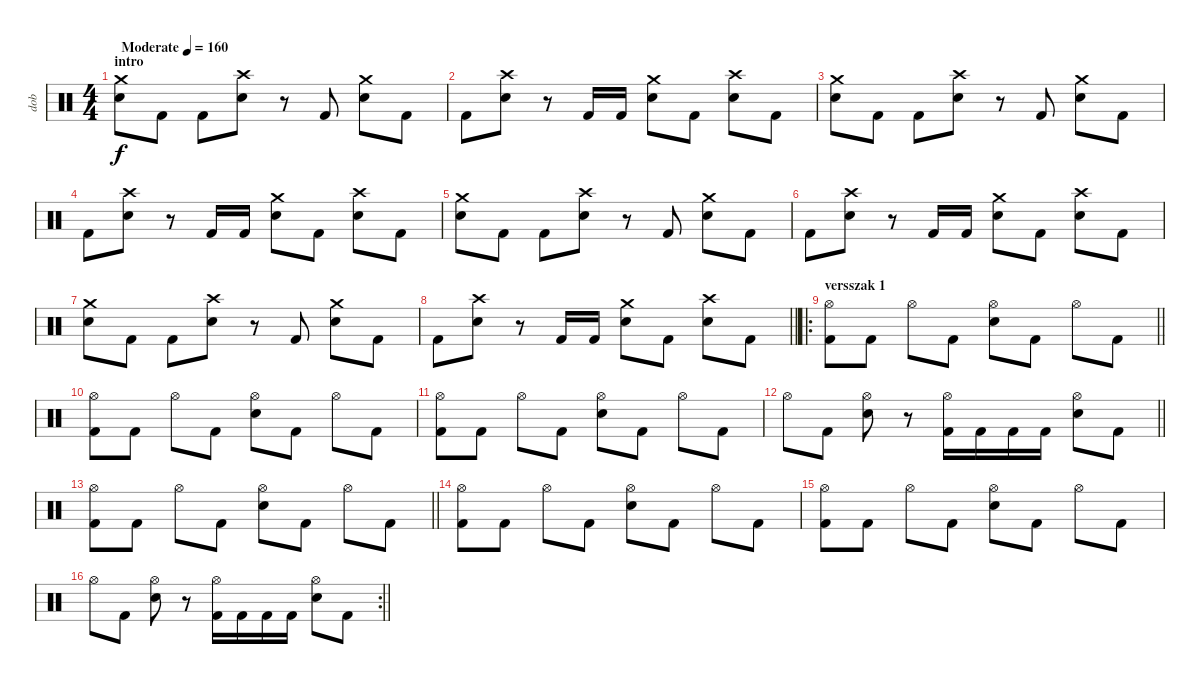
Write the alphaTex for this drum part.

\track ("dob" "dob") {instrument percussion}
\staff {score}
\articulation defaults
\ts (4 4)
\section ("" "intro")
\tempo (160 "Moderate")
\clef neutral
\ks c
("Crash medium (hit)" "Snare (hit) 2").8{dy f} "Kick (hit) 2".8 "Kick (hit) 2".8 ("Crash high (hit)" "Snare (hit) 2").8 r.8 "Kick (hit) 2".8 ("Crash medium (hit)" "Snare (hit) 2").8 "Kick (hit) 2".8 |
"Kick (hit) 2".8 ("Crash high (hit)" "Snare (hit) 2").8 r.8 "Kick (hit) 2".16 "Kick (hit) 2".16 ("Crash medium (hit)" "Snare (hit) 2").8 "Kick (hit) 2".8 ("Crash high (hit)" "Snare (hit) 2").8 "Kick (hit) 2".8 |
("Crash medium (hit)" "Snare (hit) 2").8 "Kick (hit) 2".8 "Kick (hit) 2".8 ("Crash high (hit)" "Snare (hit) 2").8 r.8 "Kick (hit) 2".8 ("Crash medium (hit)" "Snare (hit) 2").8 "Kick (hit) 2".8 |
"Kick (hit) 2".8 ("Crash high (hit)" "Snare (hit) 2").8 r.8 "Kick (hit) 2".16 "Kick (hit) 2".16 ("Crash medium (hit)" "Snare (hit) 2").8 "Kick (hit) 2".8 ("Crash high (hit)" "Snare (hit) 2").8 "Kick (hit) 2".8 |
("Crash medium (hit)" "Snare (hit) 2").8 "Kick (hit) 2".8 "Kick (hit) 2".8 ("Crash high (hit)" "Snare (hit) 2").8 r.8 "Kick (hit) 2".8 ("Crash medium (hit)" "Snare (hit) 2").8 "Kick (hit) 2".8 |
"Kick (hit) 2".8 ("Crash high (hit)" "Snare (hit) 2").8 r.8 "Kick (hit) 2".16 "Kick (hit) 2".16 ("Crash medium (hit)" "Snare (hit) 2").8 "Kick (hit) 2".8 ("Crash high (hit)" "Snare (hit) 2").8 "Kick (hit) 2".8 |
("Crash medium (hit)" "Snare (hit) 2").8 "Kick (hit) 2".8 "Kick (hit) 2".8 ("Crash high (hit)" "Snare (hit) 2").8 r.8 "Kick (hit) 2".8 ("Crash medium (hit)" "Snare (hit) 2").8 "Kick (hit) 2".8 |
\barLineRight lightlight "Kick (hit) 2".8
("Crash high (hit)" "Snare (hit) 2").8 r.8 "Kick (hit) 2".16 "Kick (hit) 2".16 ("Crash medium (hit)" "Snare (hit) 2").8 "Kick (hit) 2".8 ("Crash high (hit)" "Snare (hit) 2").8 "Kick (hit) 2".8 |
\ro
\section ("" "versszak 1")
\barLineRight lightlight
("Hi-Hat (open)" "Kick (hit) 2").8 "Kick (hit) 2".8 "Hi-Hat (open)".8 "Kick (hit) 2".8 ("Hi-Hat (open)" "Snare (hit) 2").8 "Kick (hit) 2".8 "Hi-Hat (open)".8 "Kick (hit) 2".8 |
("Hi-Hat (open)" "Kick (hit) 2").8 "Kick (hit) 2".8 "Hi-Hat (open)".8 "Kick (hit) 2".8 ("Hi-Hat (open)" "Snare (hit) 2").8 "Kick (hit) 2".8 "Hi-Hat (open)".8 "Kick (hit) 2".8 |
("Hi-Hat (open)" "Kick (hit) 2").8 "Kick (hit) 2".8 "Hi-Hat (open)".8 "Kick (hit) 2".8 ("Hi-Hat (open)" "Snare (hit) 2").8 "Kick (hit) 2".8 "Hi-Hat (open)".8 "Kick (hit) 2".8 |
\barLineRight lightlight "Hi-Hat (open)".8 "Kick (hit) 2".8
("Hi-Hat (open)" "Snare (hit) 2").8 r.8 ("Hi-Hat (open)" "Kick (hit) 2").16 "Kick (hit) 2".16 "Kick (hit) 2".16 "Kick (hit) 2".16 ("Hi-Hat (open)" "Snare (hit) 2").8 "Kick (hit) 2".8 |
\barLineRight lightlight
("Hi-Hat (open)" "Kick (hit) 2").8 "Kick (hit) 2".8 "Hi-Hat (open)".8 "Kick (hit) 2".8 ("Hi-Hat (open)" "Snare (hit) 2").8 "Kick (hit) 2".8 "Hi-Hat (open)".8 "Kick (hit) 2".8 |
("Hi-Hat (open)" "Kick (hit) 2").8 "Kick (hit) 2".8 "Hi-Hat (open)".8 "Kick (hit) 2".8 ("Hi-Hat (open)" "Snare (hit) 2").8 "Kick (hit) 2".8 "Hi-Hat (open)".8 "Kick (hit) 2".8 |
("Hi-Hat (open)" "Kick (hit) 2").8 "Kick (hit) 2".8 "Hi-Hat (open)".8 "Kick (hit) 2".8 ("Hi-Hat (open)" "Snare (hit) 2").8 "Kick (hit) 2".8 "Hi-Hat (open)".8 "Kick (hit) 2".8 |
\rc 2
\barLineRight lightlight "Hi-Hat (open)".8 "Kick (hit) 2".8
("Hi-Hat (open)" "Snare (hit) 2").8 r.8 ("Hi-Hat (open)" "Kick (hit) 2").16 "Kick (hit) 2".16 "Kick (hit) 2".16 "Kick (hit) 2".16 ("Hi-Hat (open)" "Snare (hit) 2").8 "Kick (hit) 2".8
